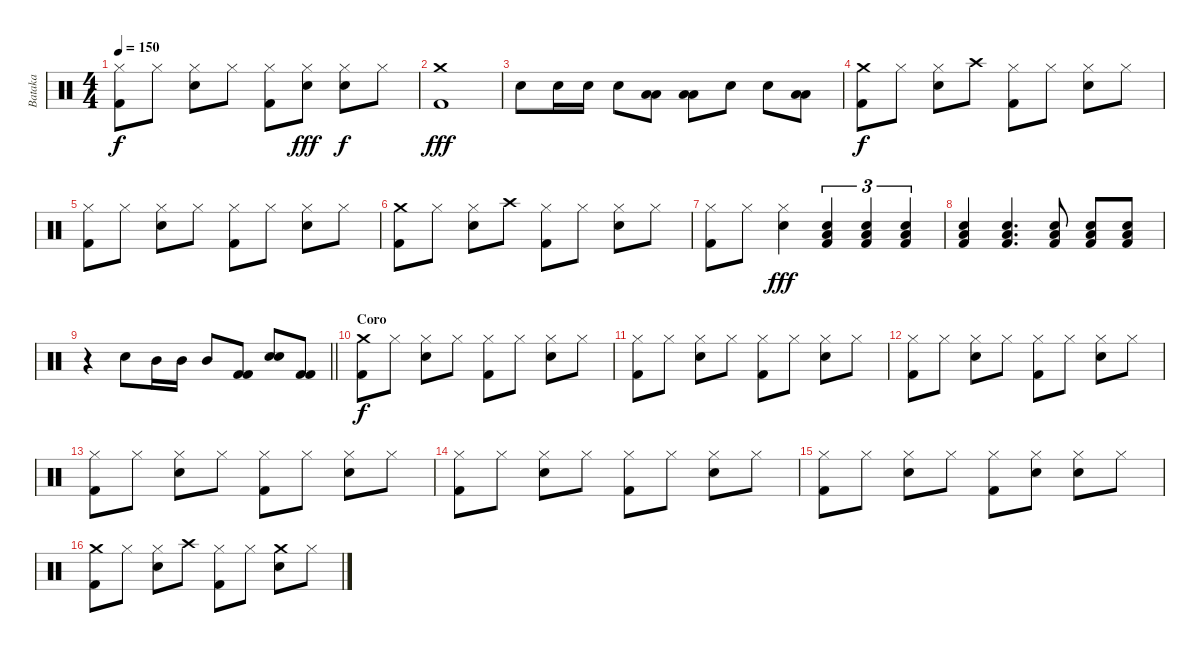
\track ("Bataka" "Bataka") {instrument percussion}
\staff {score}
\articulation defaults
\ts (4 4)
\tempo 150
\clef neutral
\ks c
("Hi-Hat (closed)" "Kick (hit) 2").8{dy f} "Hi-Hat (closed)".8 ("Hi-Hat (closed)" "Snare (hit) 2").8 "Hi-Hat (closed)".8 ("Hi-Hat (closed)" "Kick (hit) 2").8 ("Hi-Hat (closed)" "Snare (hit) 2").8{dy fff} ("Hi-Hat (closed)" "Snare (hit) 2").8{dy f} "Hi-Hat (closed)".8 |
("Crash medium (hit)" "Kick (hit) 2").1{dy fff} |
"Snare (hit) 2".8 "Snare (hit) 2".16 "Snare (hit) 2".16 "Snare (hit) 2".8 ("Low Tom (hit)" "Low Tom (hit)").8 ("Low Tom (hit)" "Low Tom (hit)").8 "Snare (hit) 2".8 "Snare (hit) 2".8 ("Low Tom (hit)" "Low Tom (hit)").8 |
("Crash medium (hit)" "Kick (hit) 2").8{dy f} "Hi-Hat (closed)".8 ("Hi-Hat (closed)" "Snare (hit) 2").8 "Crash high (hit)".8 ("Hi-Hat (closed)" "Kick (hit) 2").8 "Hi-Hat (closed)".8 ("Hi-Hat (closed)" "Snare (hit) 2").8 "Hi-Hat (closed)".8 |
("Hi-Hat (closed)" "Kick (hit) 2").8 "Hi-Hat (closed)".8 ("Hi-Hat (closed)" "Snare (hit) 2").8 "Hi-Hat (closed)".8 ("Hi-Hat (closed)" "Kick (hit) 2").8 "Hi-Hat (closed)".8 ("Hi-Hat (closed)" "Snare (hit) 2").8 "Hi-Hat (closed)".8 |
("Crash medium (hit)" "Kick (hit) 2").8 "Hi-Hat (closed)".8 ("Hi-Hat (closed)" "Snare (hit) 2").8 "Crash high (hit)".8 ("Hi-Hat (closed)" "Kick (hit) 2").8 "Hi-Hat (closed)".8 ("Hi-Hat (closed)" "Snare (hit) 2").8 "Hi-Hat (closed)".8 |
("Hi-Hat (closed)" "Kick (hit) 2").8 "Hi-Hat (closed)".8 ("Hi-Hat (closed)" "Snare (hit) 2").4{dy fff} ("Snare (hit) 2" "Low Tom (hit)" "Kick (hit) 2").4{tu (3 2)} ("Snare (hit) 2" "Low Tom (hit)" "Kick (hit) 2").4{tu (3 2)} ("Snare (hit) 2" "Low Tom (hit)" "Kick (hit) 2").4{tu (3 2)} |
("Snare (hit) 2" "Low Tom (hit)" "Kick (hit) 2").4 ("Snare (hit) 2" "Low Tom (hit)" "Kick (hit) 2").4{d} ("Snare (hit) 2" "Low Tom (hit)" "Kick (hit) 2").8 ("Snare (hit) 2" "Low Tom (hit)" "Kick (hit) 2").8 ("Snare (hit) 2" "Low Tom (hit)" "Kick (hit) 2").8 |
\barLineRight lightlight
r.4 "Snare (hit) 2".8 "Mid Tom (hit)".16 "Mid Tom (hit)".16 "Mid Tom (hit)".8 ("Kick (hit) 2" "Kick (hit) 2").8 ("Snare (hit) 2" "Snare (hit) 2").8 ("Kick (hit) 2" "Kick (hit) 2").8 |
\section ("" "Coro")
("Crash medium (hit)" "Kick (hit) 2").8{dy f} "Hi-Hat (closed)".8 ("Hi-Hat (closed)" "Snare (hit) 2").8 "Hi-Hat (closed)".8 ("Hi-Hat (closed)" "Kick (hit) 2").8 "Hi-Hat (closed)".8 ("Hi-Hat (closed)" "Snare (hit) 2").8 "Hi-Hat (closed)".8 |
("Hi-Hat (closed)" "Kick (hit) 2").8 "Hi-Hat (closed)".8 ("Hi-Hat (closed)" "Snare (hit) 2").8 "Hi-Hat (closed)".8 ("Hi-Hat (closed)" "Kick (hit) 2").8 "Hi-Hat (closed)".8 ("Hi-Hat (closed)" "Snare (hit) 2").8 "Hi-Hat (closed)".8 |
("Hi-Hat (closed)" "Kick (hit) 2").8 "Hi-Hat (closed)".8 ("Hi-Hat (closed)" "Snare (hit) 2").8 "Hi-Hat (closed)".8 ("Hi-Hat (closed)" "Kick (hit) 2").8 "Hi-Hat (closed)".8 ("Hi-Hat (closed)" "Snare (hit) 2").8 "Hi-Hat (closed)".8 |
("Hi-Hat (closed)" "Kick (hit) 2").8 "Hi-Hat (closed)".8 ("Hi-Hat (closed)" "Snare (hit) 2").8 "Hi-Hat (closed)".8 ("Hi-Hat (closed)" "Kick (hit) 2").8 "Hi-Hat (closed)".8 ("Hi-Hat (closed)" "Snare (hit) 2").8 "Hi-Hat (closed)".8 |
("Hi-Hat (closed)" "Kick (hit) 2").8 "Hi-Hat (closed)".8 ("Hi-Hat (closed)" "Snare (hit) 2").8 "Hi-Hat (closed)".8 ("Hi-Hat (closed)" "Kick (hit) 2").8 "Hi-Hat (closed)".8 ("Hi-Hat (closed)" "Snare (hit) 2").8 "Hi-Hat (closed)".8 |
("Hi-Hat (closed)" "Kick (hit) 2").8 "Hi-Hat (closed)".8 ("Hi-Hat (closed)" "Snare (hit) 2").8 "Hi-Hat (closed)".8 ("Hi-Hat (closed)" "Kick (hit) 2").8 ("Hi-Hat (closed)" "Snare (hit) 2").8 ("Hi-Hat (closed)" "Snare (hit) 2").8 "Hi-Hat (closed)".8 |
("Crash medium (hit)" "Kick (hit) 2").8 "Hi-Hat (closed)".8 ("Hi-Hat (closed)" "Snare (hit) 2").8 "Crash high (hit)".8 ("Hi-Hat (closed)" "Kick (hit) 2").8 "Hi-Hat (closed)".8 ("Crash medium (hit)" "Snare (hit) 2").8 "Hi-Hat (closed)".8
